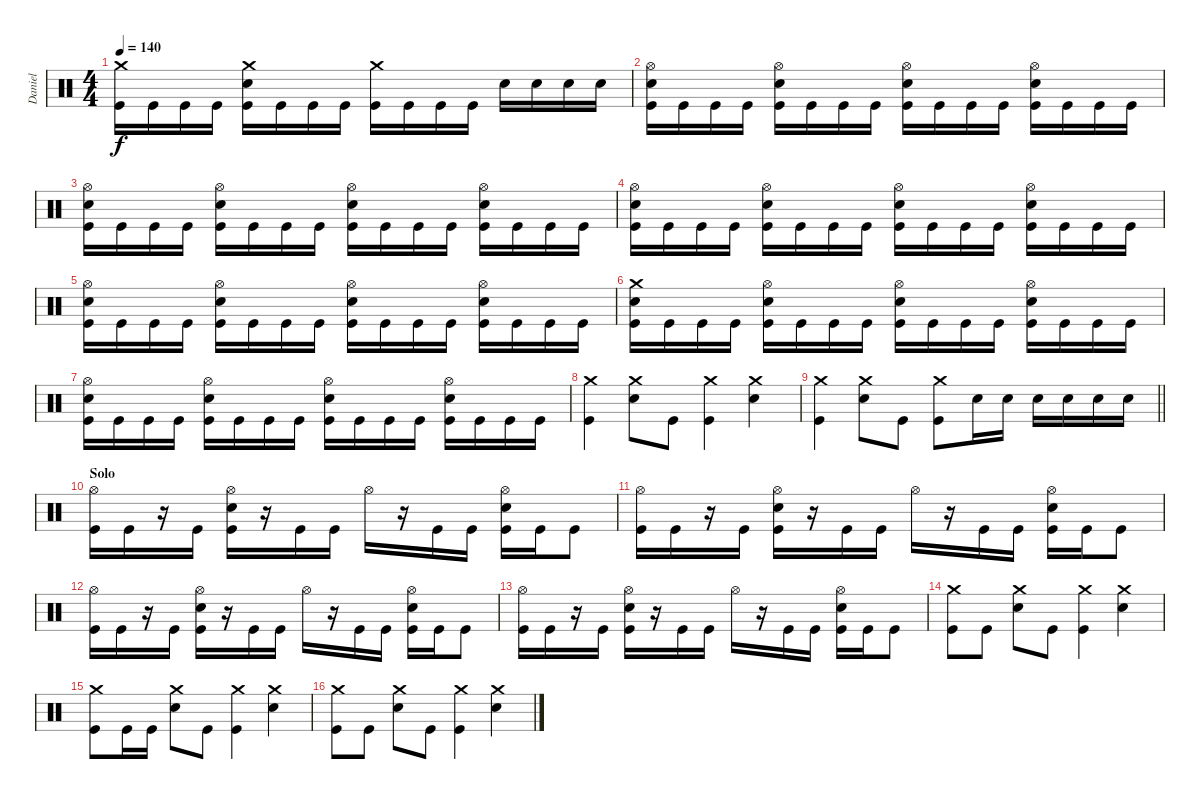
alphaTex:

\track ("Daniel" "Daniel") {instrument percussion}
\staff {score}
\articulation defaults
\ts (4 4)
\tempo 140
\clef neutral
\ks c
("Crash medium (hit)" "Kick (hit)").16{dy f} "Kick (hit)".16 "Kick (hit)".16 "Kick (hit)".16 ("Crash medium (hit)" "Electric Snare (hit)" "Kick (hit)").16 "Kick (hit)".16 "Kick (hit)".16 "Kick (hit)".16 ("Crash medium (hit)" "Kick (hit)").16 "Kick (hit)".16 "Kick (hit)".16 "Kick (hit)".16 "Electric Snare (hit)".16 "Electric Snare (hit)".16 "Electric Snare (hit)".16 "Electric Snare (hit)".16 |
("Hi-Hat (open)" "Electric Snare (hit)" "Kick (hit)").16 "Kick (hit)".16 "Kick (hit)".16 "Kick (hit)".16 ("Hi-Hat (open)" "Electric Snare (hit)" "Kick (hit)").16 "Kick (hit)".16 "Kick (hit)".16 "Kick (hit)".16 ("Hi-Hat (open)" "Electric Snare (hit)" "Kick (hit)").16 "Kick (hit)".16 "Kick (hit)".16 "Kick (hit)".16 ("Hi-Hat (open)" "Electric Snare (hit)" "Kick (hit)").16 "Kick (hit)".16 "Kick (hit)".16 "Kick (hit)".16 |
("Hi-Hat (open)" "Electric Snare (hit)" "Kick (hit)").16 "Kick (hit)".16 "Kick (hit)".16 "Kick (hit)".16 ("Hi-Hat (open)" "Electric Snare (hit)" "Kick (hit)").16 "Kick (hit)".16 "Kick (hit)".16 "Kick (hit)".16 ("Hi-Hat (open)" "Electric Snare (hit)" "Kick (hit)").16 "Kick (hit)".16 "Kick (hit)".16 "Kick (hit)".16 ("Hi-Hat (open)" "Electric Snare (hit)" "Kick (hit)").16 "Kick (hit)".16 "Kick (hit)".16 "Kick (hit)".16 |
("Hi-Hat (open)" "Electric Snare (hit)" "Kick (hit)").16 "Kick (hit)".16 "Kick (hit)".16 "Kick (hit)".16 ("Hi-Hat (open)" "Electric Snare (hit)" "Kick (hit)").16 "Kick (hit)".16 "Kick (hit)".16 "Kick (hit)".16 ("Hi-Hat (open)" "Electric Snare (hit)" "Kick (hit)").16 "Kick (hit)".16 "Kick (hit)".16 "Kick (hit)".16 ("Hi-Hat (open)" "Electric Snare (hit)" "Kick (hit)").16 "Kick (hit)".16 "Kick (hit)".16 "Kick (hit)".16 |
("Hi-Hat (open)" "Electric Snare (hit)" "Kick (hit)").16 "Kick (hit)".16 "Kick (hit)".16 "Kick (hit)".16 ("Hi-Hat (open)" "Electric Snare (hit)" "Kick (hit)").16 "Kick (hit)".16 "Kick (hit)".16 "Kick (hit)".16 ("Hi-Hat (open)" "Electric Snare (hit)" "Kick (hit)").16 "Kick (hit)".16 "Kick (hit)".16 "Kick (hit)".16 ("Hi-Hat (open)" "Electric Snare (hit)" "Kick (hit)").16 "Kick (hit)".16 "Kick (hit)".16 "Kick (hit)".16 |
("Crash medium (hit)" "Electric Snare (hit)" "Kick (hit)").16 "Kick (hit)".16 "Kick (hit)".16 "Kick (hit)".16 ("Hi-Hat (open)" "Electric Snare (hit)" "Kick (hit)").16 "Kick (hit)".16 "Kick (hit)".16 "Kick (hit)".16 ("Hi-Hat (open)" "Electric Snare (hit)" "Kick (hit)").16 "Kick (hit)".16 "Kick (hit)".16 "Kick (hit)".16 ("Hi-Hat (open)" "Electric Snare (hit)" "Kick (hit)").16 "Kick (hit)".16 "Kick (hit)".16 "Kick (hit)".16 |
("Hi-Hat (open)" "Electric Snare (hit)" "Kick (hit)").16 "Kick (hit)".16 "Kick (hit)".16 "Kick (hit)".16 ("Hi-Hat (open)" "Electric Snare (hit)" "Kick (hit)").16 "Kick (hit)".16 "Kick (hit)".16 "Kick (hit)".16 ("Hi-Hat (open)" "Electric Snare (hit)" "Kick (hit)").16 "Kick (hit)".16 "Kick (hit)".16 "Kick (hit)".16 ("Hi-Hat (open)" "Electric Snare (hit)" "Kick (hit)").16 "Kick (hit)".16 "Kick (hit)".16 "Kick (hit)".16 |
("Crash medium (hit)" "Kick (hit)").4 ("Crash medium (hit)" "Electric Snare (hit)").8 "Kick (hit)".8 ("Crash medium (hit)" "Kick (hit)").4 ("Crash medium (hit)" "Electric Snare (hit)").4 |
\barLineRight lightlight
("Crash medium (hit)" "Kick (hit)").4 ("Crash medium (hit)" "Electric Snare (hit)").8 "Kick (hit)".8 ("Crash medium (hit)" "Kick (hit)").8 "Electric Snare (hit)".16 "Electric Snare (hit)".16 "Electric Snare (hit)".16 "Electric Snare (hit)".16 "Electric Snare (hit)".16 "Electric Snare (hit)".16 |
\section ("" "Solo")
("Hi-Hat (open)" "Kick (hit)").16 "Kick (hit)".16 r.16 "Kick (hit)".16 ("Hi-Hat (open)" "Electric Snare (hit)" "Kick (hit)").16 r.16 "Kick (hit)".16 "Kick (hit)".16 "Hi-Hat (open)".16 r.16 "Kick (hit)".16 "Kick (hit)".16 ("Hi-Hat (open)" "Electric Snare (hit)" "Kick (hit)").16 "Kick (hit)".16 "Kick (hit)".8 |
("Hi-Hat (open)" "Kick (hit)").16 "Kick (hit)".16 r.16 "Kick (hit)".16 ("Hi-Hat (open)" "Electric Snare (hit)" "Kick (hit)").16 r.16 "Kick (hit)".16 "Kick (hit)".16 "Hi-Hat (open)".16 r.16 "Kick (hit)".16 "Kick (hit)".16 ("Hi-Hat (open)" "Electric Snare (hit)" "Kick (hit)").16 "Kick (hit)".16 "Kick (hit)".8 |
("Hi-Hat (open)" "Kick (hit)").16 "Kick (hit)".16 r.16 "Kick (hit)".16 ("Hi-Hat (open)" "Electric Snare (hit)" "Kick (hit)").16 r.16 "Kick (hit)".16 "Kick (hit)".16 "Hi-Hat (open)".16 r.16 "Kick (hit)".16 "Kick (hit)".16 ("Hi-Hat (open)" "Electric Snare (hit)" "Kick (hit)").16 "Kick (hit)".16 "Kick (hit)".8 |
("Hi-Hat (open)" "Kick (hit)").16 "Kick (hit)".16 r.16 "Kick (hit)".16 ("Hi-Hat (open)" "Electric Snare (hit)" "Kick (hit)").16 r.16 "Kick (hit)".16 "Kick (hit)".16 "Hi-Hat (open)".16 r.16 "Kick (hit)".16 "Kick (hit)".16 ("Hi-Hat (open)" "Electric Snare (hit)" "Kick (hit)").16 "Kick (hit)".16 "Kick (hit)".8 |
("Crash medium (hit)" "Kick (hit)").8 "Kick (hit)".8 ("Crash medium (hit)" "Electric Snare (hit)").8 "Kick (hit)".8 ("Crash medium (hit)" "Kick (hit)").4 ("Crash medium (hit)" "Electric Snare (hit)").4 |
("Crash medium (hit)" "Kick (hit)").8 "Kick (hit)".16 "Kick (hit)".16 ("Crash medium (hit)" "Electric Snare (hit)").8 "Kick (hit)".8 ("Crash medium (hit)" "Kick (hit)").4 ("Crash medium (hit)" "Electric Snare (hit)").4 |
("Crash medium (hit)" "Kick (hit)").8 "Kick (hit)".8 ("Crash medium (hit)" "Electric Snare (hit)").8 "Kick (hit)".8 ("Crash medium (hit)" "Kick (hit)").4 ("Crash medium (hit)" "Electric Snare (hit)").4
